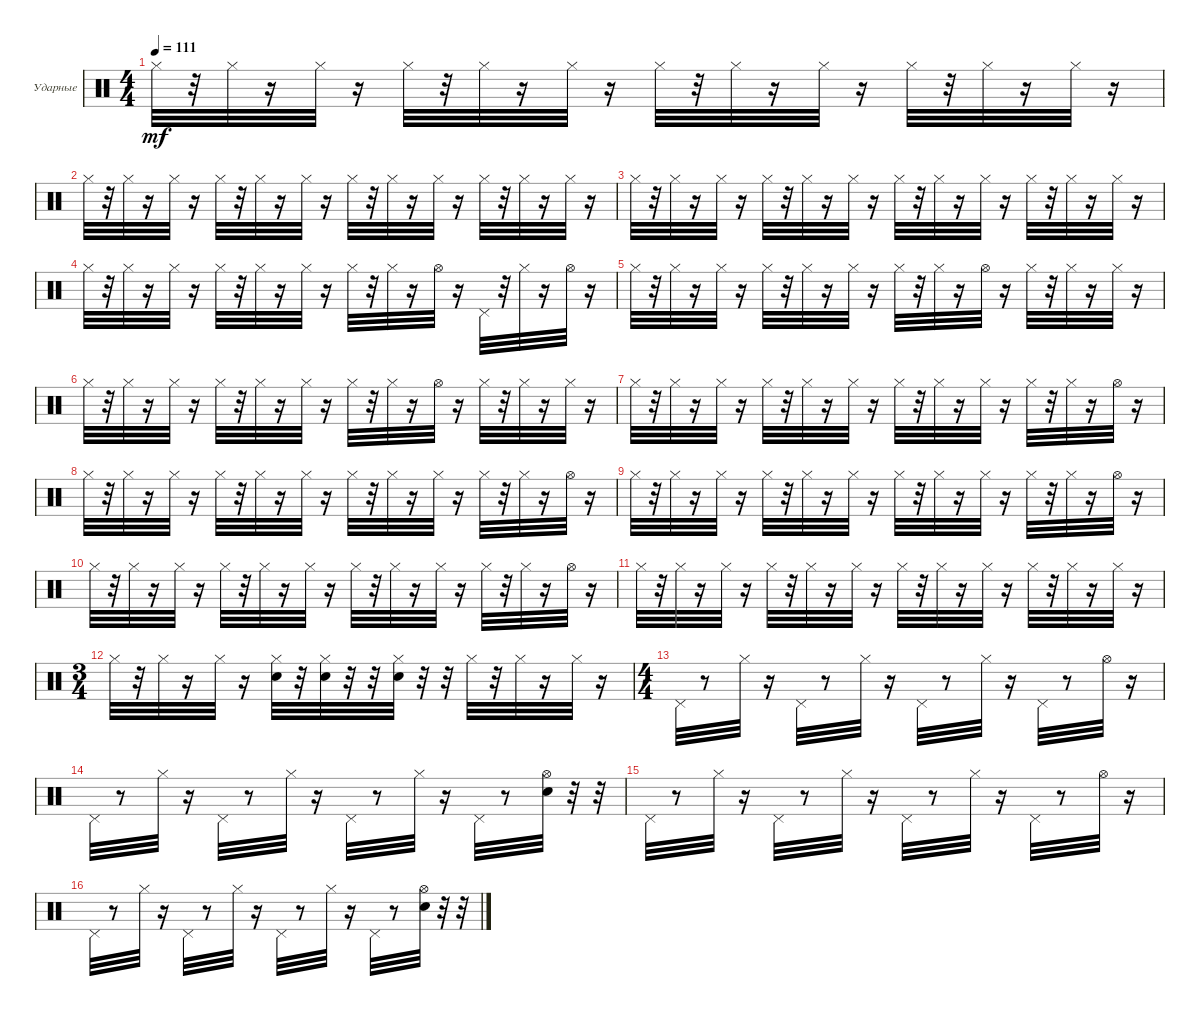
\bracketExtendMode groupsimilarinstruments
\firstSystemTrackNameOrientation horizontal
\otherSystemsTrackNameOrientation horizontal
\track ("Ударные" "Ударные") {instrument percussion}
\staff {score}
\articulation defaults
\ts (4 4)
\tempo 111
\clef neutral
\ks c "Hi-Hat (closed)".32{dy mf}
r.32 "Hi-Hat (closed)".32 r.16 "Hi-Hat (closed)".32 r.16 "Hi-Hat (closed)".32 r.32 "Hi-Hat (closed)".32 r.16 "Hi-Hat (closed)".32 r.16 "Hi-Hat (closed)".32 r.32 "Hi-Hat (closed)".32 r.16 "Hi-Hat (closed)".32 r.16 "Hi-Hat (closed)".32 r.32 "Hi-Hat (closed)".32 r.16 "Hi-Hat (closed)".32 r.16 |
"Hi-Hat (closed)".32 r.32 "Hi-Hat (closed)".32 r.16 "Hi-Hat (closed)".32 r.16 "Hi-Hat (closed)".32 r.32 "Hi-Hat (closed)".32 r.16 "Hi-Hat (closed)".32 r.16 "Hi-Hat (closed)".32 r.32 "Hi-Hat (closed)".32 r.16 "Hi-Hat (closed)".32 r.16 "Hi-Hat (closed)".32 r.32 "Hi-Hat (closed)".32 r.16 "Hi-Hat (closed)".32 r.16 |
"Hi-Hat (closed)".32 r.32 "Hi-Hat (closed)".32 r.16 "Hi-Hat (closed)".32 r.16 "Hi-Hat (closed)".32 r.32 "Hi-Hat (closed)".32 r.16 "Hi-Hat (closed)".32 r.16 "Hi-Hat (closed)".32 r.32 "Hi-Hat (closed)".32 r.16 "Hi-Hat (closed)".32 r.16 "Hi-Hat (closed)".32 r.32 "Hi-Hat (closed)".32 r.16 "Hi-Hat (closed)".32 r.16 |
"Hi-Hat (closed)".32 r.32 "Hi-Hat (closed)".32 r.16 "Hi-Hat (closed)".32 r.16 "Hi-Hat (closed)".32 r.32 "Hi-Hat (closed)".32 r.16 "Hi-Hat (closed)".32 r.16 "Hi-Hat (closed)".32 r.32 "Hi-Hat (closed)".32 r.16 "Hi-Hat (open)".32 r.16 "Pedal Hi-Hat (hit)".32 r.32 "Hi-Hat (closed)".32 r.16 "Hi-Hat (open)".32 r.16 |
"Hi-Hat (closed)".32 r.32 "Hi-Hat (closed)".32 r.16 "Hi-Hat (closed)".32 r.16 "Hi-Hat (closed)".32 r.32 "Hi-Hat (closed)".32 r.16 "Hi-Hat (closed)".32 r.16 "Hi-Hat (closed)".32 r.32 "Hi-Hat (closed)".32 r.16 "Hi-Hat (open)".32 r.16 "Hi-Hat (closed)".32 r.32 "Hi-Hat (closed)".32 r.16 "Hi-Hat (closed)".32 r.16 |
"Hi-Hat (closed)".32 r.32 "Hi-Hat (closed)".32 r.16 "Hi-Hat (closed)".32 r.16 "Hi-Hat (closed)".32 r.32 "Hi-Hat (closed)".32 r.16 "Hi-Hat (closed)".32 r.16 "Hi-Hat (closed)".32 r.32 "Hi-Hat (closed)".32 r.16 "Hi-Hat (open)".32 r.16 "Hi-Hat (closed)".32 r.32 "Hi-Hat (closed)".32 r.16 "Hi-Hat (closed)".32 r.16 |
"Hi-Hat (closed)".32 r.32 "Hi-Hat (closed)".32 r.16 "Hi-Hat (closed)".32 r.16 "Hi-Hat (closed)".32 r.32 "Hi-Hat (closed)".32 r.16 "Hi-Hat (closed)".32 r.16 "Hi-Hat (closed)".32 r.32 "Hi-Hat (closed)".32 r.16 "Hi-Hat (closed)".32 r.16 "Hi-Hat (closed)".32 r.32 "Hi-Hat (closed)".32 r.16 "Hi-Hat (open)".32 r.16 |
"Hi-Hat (closed)".32 r.32 "Hi-Hat (closed)".32 r.16 "Hi-Hat (closed)".32 r.16 "Hi-Hat (closed)".32 r.32 "Hi-Hat (closed)".32 r.16 "Hi-Hat (closed)".32 r.16 "Hi-Hat (closed)".32 r.32 "Hi-Hat (closed)".32 r.16 "Hi-Hat (closed)".32 r.16 "Hi-Hat (closed)".32 r.32 "Hi-Hat (closed)".32 r.16 "Hi-Hat (open)".32 r.16 |
"Hi-Hat (closed)".32 r.32 "Hi-Hat (closed)".32 r.16 "Hi-Hat (closed)".32 r.16 "Hi-Hat (closed)".32 r.32 "Hi-Hat (closed)".32 r.16 "Hi-Hat (closed)".32 r.16 "Hi-Hat (closed)".32 r.32 "Hi-Hat (closed)".32 r.16 "Hi-Hat (closed)".32 r.16 "Hi-Hat (closed)".32 r.32 "Hi-Hat (closed)".32 r.16 "Hi-Hat (open)".32 r.16 |
"Hi-Hat (closed)".32 r.32 "Hi-Hat (closed)".32 r.16 "Hi-Hat (closed)".32 r.16 "Hi-Hat (closed)".32 r.32 "Hi-Hat (closed)".32 r.16 "Hi-Hat (closed)".32 r.16 "Hi-Hat (closed)".32 r.32 "Hi-Hat (closed)".32 r.16 "Hi-Hat (closed)".32 r.16 "Hi-Hat (closed)".32 r.32 "Hi-Hat (closed)".32 r.16 "Hi-Hat (open)".32 r.16 |
"Hi-Hat (closed)".32 r.32 "Hi-Hat (closed)".32 r.16 "Hi-Hat (closed)".32 r.16 "Hi-Hat (closed)".32 r.32 "Hi-Hat (closed)".32 r.16 "Hi-Hat (closed)".32 r.16 "Hi-Hat (closed)".32 r.32 "Hi-Hat (closed)".32 r.16 "Hi-Hat (closed)".32 r.16 "Hi-Hat (closed)".32 r.32 "Hi-Hat (closed)".32 r.16 "Hi-Hat (closed)".32 r.16 |
\ts (3 4)
"Hi-Hat (closed)".32 r.32 "Hi-Hat (closed)".32 r.16 "Hi-Hat (closed)".32 r.16 ("Hi-Hat (closed)" "Snare (hit) 2").32 r.32 ("Hi-Hat (closed)" "Snare (hit) 2").32 r.32 r.32 ("Hi-Hat (closed)" "Snare (hit) 2").32 r.32 r.32 "Hi-Hat (closed)".32 r.32 "Hi-Hat (closed)".32 r.16 "Hi-Hat (closed)".32 r.16 |
\ts (4 4)
"Pedal Hi-Hat (hit)".32 r.8 "Hi-Hat (closed)".32 r.16 "Pedal Hi-Hat (hit)".32 r.8 "Hi-Hat (closed)".32 r.16 "Pedal Hi-Hat (hit)".32 r.8 "Hi-Hat (closed)".32 r.16 "Pedal Hi-Hat (hit)".32 r.8 "Hi-Hat (open)".32 r.16 |
"Pedal Hi-Hat (hit)".32 r.8 "Hi-Hat (closed)".32 r.16 "Pedal Hi-Hat (hit)".32 r.8 "Hi-Hat (closed)".32 r.16 "Pedal Hi-Hat (hit)".32 r.8 "Hi-Hat (closed)".32 r.16 "Pedal Hi-Hat (hit)".32 r.8 ("Hi-Hat (open)" "Snare (hit) 2").32 r.32 r.32 |
"Pedal Hi-Hat (hit)".32 r.8 "Hi-Hat (closed)".32 r.16 "Pedal Hi-Hat (hit)".32 r.8 "Hi-Hat (closed)".32 r.16 "Pedal Hi-Hat (hit)".32 r.8 "Hi-Hat (closed)".32 r.16 "Pedal Hi-Hat (hit)".32 r.8 "Hi-Hat (open)".32 r.16 |
"Pedal Hi-Hat (hit)".32 r.8 "Hi-Hat (closed)".32 r.16 "Pedal Hi-Hat (hit)".32 r.8 "Hi-Hat (closed)".32 r.16 "Pedal Hi-Hat (hit)".32 r.8 "Hi-Hat (closed)".32 r.16 "Pedal Hi-Hat (hit)".32 r.8 ("Hi-Hat (open)" "Snare (hit) 2").32 r.32 r.32
